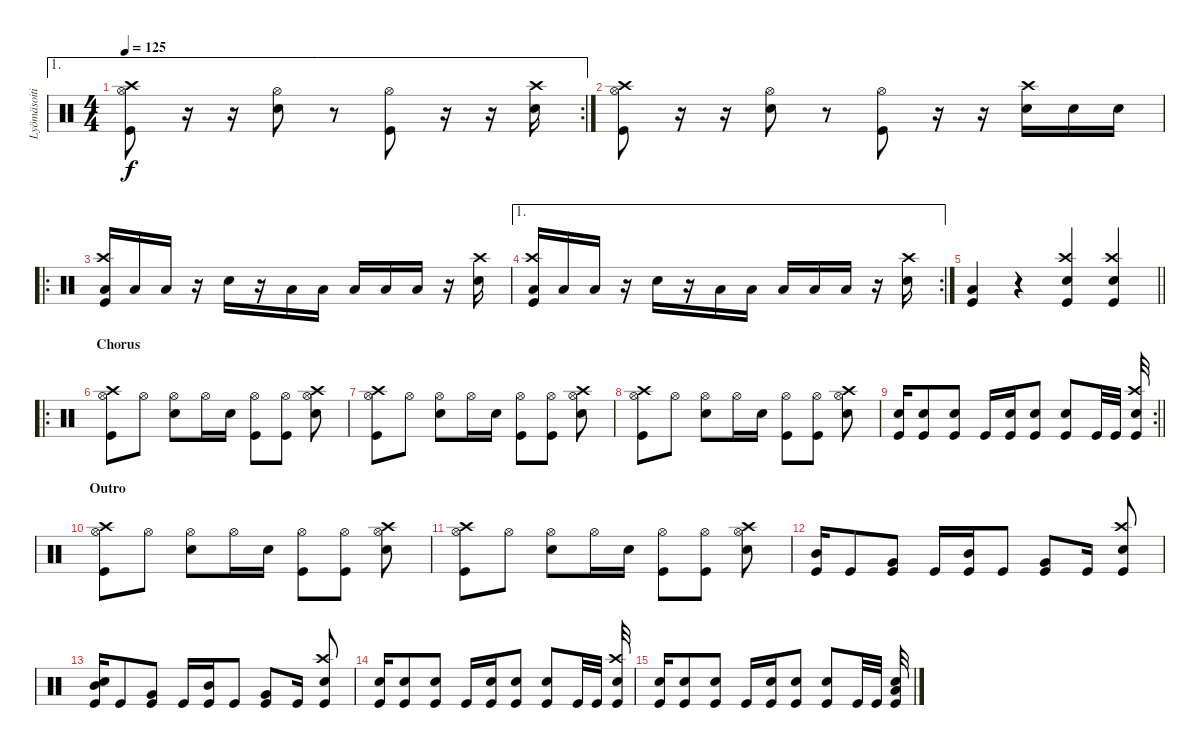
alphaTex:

\track ("Lyömäsoitin" "Lyömäsoiti") {instrument percussion}
\staff {score}
\articulation defaults
\ae 1
\rc 2
\ts (4 4)
\tempo 125
\clef neutral
\ks c
("Kick (hit)" "Hi-Hat (open)" "Crash high (hit)").8{dy f} r.16 r.16 ("Snare (hit) 2" "Hi-Hat (open)").8 r.8 ("Hi-Hat (open)" "Kick (hit)").8 r.16 r.16 ("Snare (hit) 2" "Crash high (hit)").16 |
("Kick (hit)" "Hi-Hat (open)" "Crash high (hit)").8 r.16 r.16 ("Snare (hit) 2" "Hi-Hat (open)").8 r.8 ("Hi-Hat (open)" "Kick (hit)").8 r.16 r.16 ("Snare (hit) 2" "Crash high (hit)").16 "Snare (hit) 2".16 "Snare (hit) 2".16 |
\ro
("Kick (hit)" "Low Tom (hit)" "Crash high (hit)").16 "Low Tom (hit)".16 "Low Tom (hit)".16 r.16 "Snare (hit) 2".16 r.16 "Low Tom (hit)".16 "Low Tom (hit)".16 "Low Tom (hit)".16 "Low Tom (hit)".16 "Low Tom (hit)".16 r.16 ("Snare (hit) 2" "Crash high (hit)").16 |
\ae 1
\rc 2
("Kick (hit)" "Low Tom (hit)" "Crash high (hit)").16 "Low Tom (hit)".16 "Low Tom (hit)".16 r.16 "Snare (hit) 2".16 r.16 "Low Tom (hit)".16 "Low Tom (hit)".16 "Low Tom (hit)".16 "Low Tom (hit)".16 "Low Tom (hit)".16 r.16 ("Snare (hit) 2" "Crash high (hit)").16 |
\barLineRight lightlight
("Kick (hit)" "Low Floor Tom (hit)").4 r.4 ("Snare (hit) 2" "Kick (hit)" "Crash high (hit)").4 ("Snare (hit) 2" "Kick (hit)" "Crash high (hit)").4 |
\ro
\section ("" "Chorus")
("Kick (hit)" "Hi-Hat (open)" "Crash high (hit)").8 "Hi-Hat (open)".8 ("Hi-Hat (open)" "Snare (hit) 2").8 "Hi-Hat (open)".16 "Snare (hit) 2".16 ("Hi-Hat (open)" "Kick (hit)").8 ("Hi-Hat (open)" "Kick (hit)").8 ("Hi-Hat (open)" "Snare (hit) 2" "Crash high (hit)").8 |
("Kick (hit)" "Hi-Hat (open)" "Crash high (hit)").8 "Hi-Hat (open)".8 ("Hi-Hat (open)" "Snare (hit) 2").8 "Hi-Hat (open)".16 "Snare (hit) 2".16 ("Hi-Hat (open)" "Kick (hit)").8 ("Hi-Hat (open)" "Kick (hit)").8 ("Hi-Hat (open)" "Snare (hit) 2" "Crash high (hit)").8 |
("Kick (hit)" "Hi-Hat (open)" "Crash high (hit)").8 "Hi-Hat (open)".8 ("Hi-Hat (open)" "Snare (hit) 2").8 "Hi-Hat (open)".16 "Snare (hit) 2".16 ("Hi-Hat (open)" "Kick (hit)").8 ("Hi-Hat (open)" "Kick (hit)").8 ("Hi-Hat (open)" "Snare (hit) 2" "Crash high (hit)").8 |
\rc 2
\barLineRight lightlight
("Kick (hit)" "Snare (hit) 2").16 ("Kick (hit)" "Snare (hit) 2").8 ("Kick (hit)" "Snare (hit) 2").8 "Kick (hit)".16 ("Snare (hit) 2" "Kick (hit)").16 ("Snare (hit) 2" "Kick (hit)").8 ("Snare (hit) 2" "Kick (hit)").8 "Kick (hit)".32 "Kick (hit)".32 ("Kick (hit)" "Crash high (hit)" "Snare (hit) 2").32 |
\section ("" "Outro")
("Kick (hit)" "Hi-Hat (open)" "Crash high (hit)").8 "Hi-Hat (open)".8 ("Hi-Hat (open)" "Snare (hit) 2").8 "Hi-Hat (open)".16 "Snare (hit) 2".16 ("Hi-Hat (open)" "Kick (hit)").8 ("Hi-Hat (open)" "Kick (hit)").8 ("Hi-Hat (open)" "Snare (hit) 2" "Crash high (hit)").8 |
("Kick (hit)" "Hi-Hat (open)" "Crash high (hit)").8 "Hi-Hat (open)".8 ("Hi-Hat (open)" "Snare (hit) 2").8 "Hi-Hat (open)".16 "Snare (hit) 2".16 ("Hi-Hat (open)" "Kick (hit)").8 ("Hi-Hat (open)" "Kick (hit)").8 ("Hi-Hat (open)" "Snare (hit) 2" "Crash high (hit)").8 |
("Mid Tom (hit)" "Kick (hit)").16 "Kick (hit)".8 ("Very Low Tom (hit)" "Kick (hit)").8 "Kick (hit)".16 ("Mid Tom (hit)" "Kick (hit)").16 "Kick (hit)".8 ("Very Low Tom (hit)" "Kick (hit)").8 "Kick (hit)".16 ("Crash high (hit)" "Snare (hit) 2" "Kick (hit)").8 |
("Mid Tom (hit)" "Kick (hit)" "Snare (hit) 2").16 "Kick (hit)".8 ("Very Low Tom (hit)" "Kick (hit)").8 "Kick (hit)".16 ("Mid Tom (hit)" "Kick (hit)").16 "Kick (hit)".8 ("Very Low Tom (hit)" "Kick (hit)").8 "Kick (hit)".16 ("Crash high (hit)" "Snare (hit) 2" "Kick (hit)").8 |
("Kick (hit)" "Snare (hit) 2").16 ("Kick (hit)" "Snare (hit) 2").8 ("Kick (hit)" "Snare (hit) 2").8 "Kick (hit)".16 ("Snare (hit) 2" "Kick (hit)").16 ("Snare (hit) 2" "Kick (hit)").8 ("Snare (hit) 2" "Kick (hit)").8 "Kick (hit)".32 "Kick (hit)".32 ("Kick (hit)" "Crash high (hit)" "Snare (hit) 2").32 |
("Kick (hit)" "Snare (hit) 2").16 ("Kick (hit)" "Snare (hit) 2").8 ("Kick (hit)" "Snare (hit) 2").8 "Kick (hit)".16 ("Snare (hit) 2" "Kick (hit)").16 ("Snare (hit) 2" "Kick (hit)").8 ("Snare (hit) 2" "Kick (hit)").8 "Kick (hit)".32 "Kick (hit)".32 ("Kick (hit)" "Low Floor Tom (hit)" "Snare (hit) 2").32
